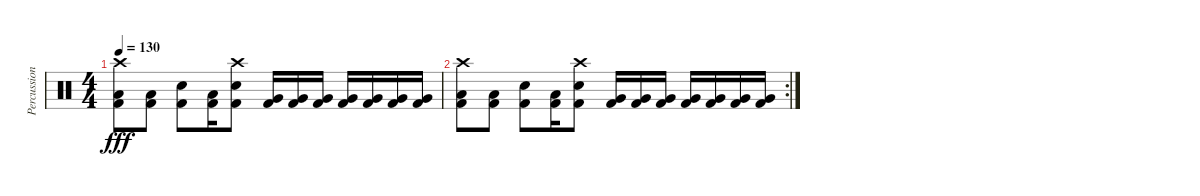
\track ("Percussion" "Percussion") {instrument percussion}
\staff {score}
\articulation defaults
\ts (4 4)
\tempo 130
\clef neutral
\ks c
("Crash high (hit)" "Low Floor Tom (hit)" "Kick (hit) 2").8{dy fff} ("Low Floor Tom (hit)" "Kick (hit) 2").8 ("Electric Snare (hit)" "Kick (hit) 2").8 ("Low Floor Tom (hit)" "Kick (hit) 2").16 ("Crash high (hit)" "Electric Snare (hit)" "Kick (hit) 2").8 ("Very Low Tom (hit)" "Kick (hit) 2").16 ("Very Low Tom (hit)" "Kick (hit) 2").16 ("Very Low Tom (hit)" "Kick (hit) 2").16 ("Very Low Tom (hit)" "Kick (hit) 2").16 ("Very Low Tom (hit)" "Kick (hit) 2").16 ("Very Low Tom (hit)" "Kick (hit) 2").16 ("Very Low Tom (hit)" "Kick (hit) 2").16 |
\rc 2
("Crash high (hit)" "Low Floor Tom (hit)" "Kick (hit) 2").8 ("Low Floor Tom (hit)" "Kick (hit) 2").8 ("Electric Snare (hit)" "Kick (hit) 2").8 ("Low Floor Tom (hit)" "Kick (hit) 2").16 ("Crash high (hit)" "Electric Snare (hit)" "Kick (hit) 2").8 ("Very Low Tom (hit)" "Kick (hit) 2").16 ("Very Low Tom (hit)" "Kick (hit) 2").16 ("Very Low Tom (hit)" "Kick (hit) 2").16 ("Very Low Tom (hit)" "Kick (hit) 2").16 ("Very Low Tom (hit)" "Kick (hit) 2").16 ("Very Low Tom (hit)" "Kick (hit) 2").16 ("Very Low Tom (hit)" "Kick (hit) 2").16
